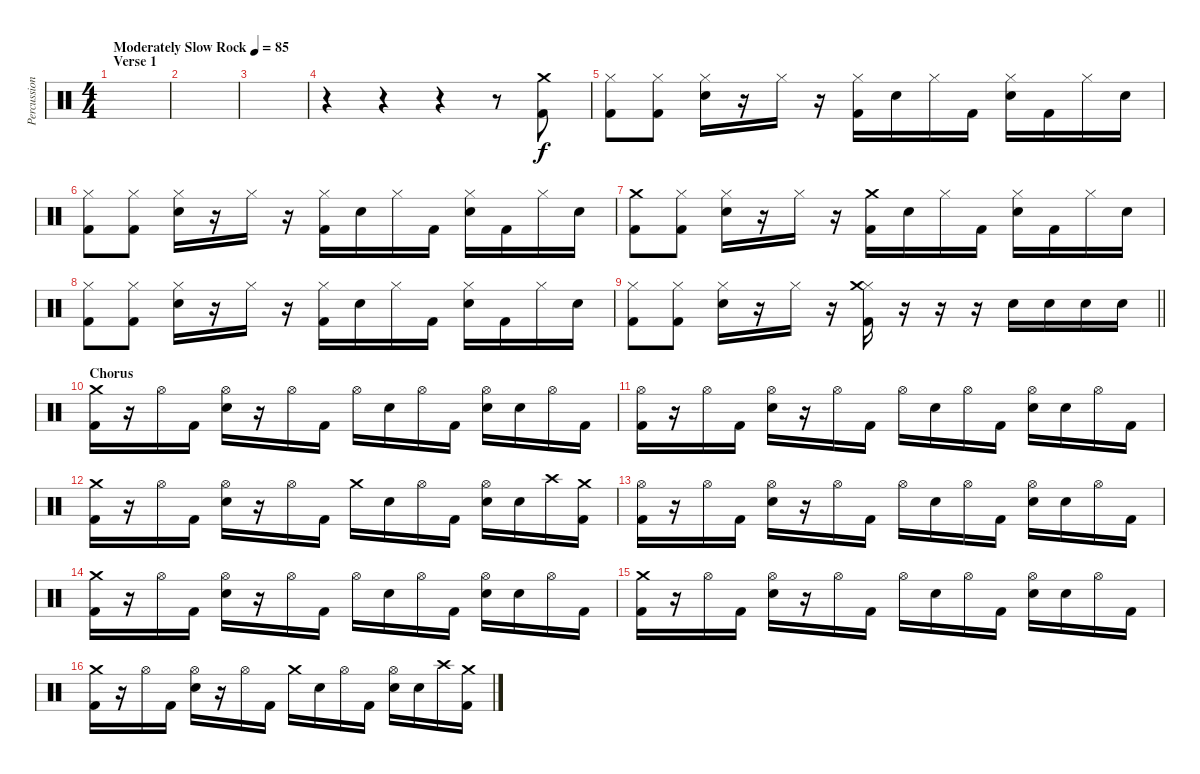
\track ("Percussion" "Percussion") {instrument percussion}
\staff {score}
\articulation defaults
\ts (4 4)
\section ("" "Verse 1")
\tempo (85 "Moderately Slow Rock")
\clef neutral
\ks c
|
|
|
r.4 r.4 r.4 r.8 ("Crash medium (hit)" "Kick (hit) 2").8 |
("Hi-Hat (closed)" "Kick (hit) 2").8 ("Hi-Hat (closed)" "Kick (hit) 2").8 ("Hi-Hat (closed)" "Electric Snare (hit)").16 r.16 "Hi-Hat (closed)".16 r.16 ("Hi-Hat (closed)" "Kick (hit) 2").16 "Electric Snare (hit)".16 "Hi-Hat (closed)".16 "Kick (hit) 2".16 ("Hi-Hat (closed)" "Electric Snare (hit)").16 "Kick (hit) 2".16 "Hi-Hat (closed)".16 "Electric Snare (hit)".16 |
("Hi-Hat (closed)" "Kick (hit) 2").8 ("Hi-Hat (closed)" "Kick (hit) 2").8 ("Hi-Hat (closed)" "Electric Snare (hit)").16 r.16 "Hi-Hat (closed)".16 r.16 ("Hi-Hat (closed)" "Kick (hit) 2").16 "Electric Snare (hit)".16 "Hi-Hat (closed)".16 "Kick (hit) 2".16 ("Hi-Hat (closed)" "Electric Snare (hit)").16 "Kick (hit) 2".16 "Hi-Hat (closed)".16 "Electric Snare (hit)".16 |
("Crash medium (hit)" "Kick (hit) 2").8 ("Hi-Hat (closed)" "Kick (hit) 2").8 ("Hi-Hat (closed)" "Electric Snare (hit)").16 r.16 "Hi-Hat (closed)".16 r.16 ("Crash medium (hit)" "Kick (hit) 2").16 "Electric Snare (hit)".16 "Hi-Hat (closed)".16 "Kick (hit) 2".16 ("Hi-Hat (closed)" "Electric Snare (hit)").16 "Kick (hit) 2".16 "Hi-Hat (closed)".16 "Electric Snare (hit)".16 |
("Hi-Hat (closed)" "Kick (hit) 2").8 ("Hi-Hat (closed)" "Kick (hit) 2").8 ("Hi-Hat (closed)" "Electric Snare (hit)").16 r.16 "Hi-Hat (closed)".16 r.16 ("Hi-Hat (closed)" "Kick (hit) 2").16 "Electric Snare (hit)".16 "Hi-Hat (closed)".16 "Kick (hit) 2".16 ("Hi-Hat (closed)" "Electric Snare (hit)").16 "Kick (hit) 2".16 "Hi-Hat (closed)".16 "Electric Snare (hit)".16 |
\barLineRight lightlight
("Hi-Hat (closed)" "Kick (hit) 2").8 ("Hi-Hat (closed)" "Kick (hit) 2").8 ("Hi-Hat (closed)" "Electric Snare (hit)").16 r.16 "Hi-Hat (closed)".16 r.16 ("Hi-Hat (closed)" "Crash medium (hit)" "Kick (hit) 2").16 r.16 r.16 r.16 "Electric Snare (hit)".16 "Electric Snare (hit)".16 "Electric Snare (hit)".16 "Electric Snare (hit)".16 |
\section ("" "Chorus ")
("Crash medium (hit)" "Kick (hit) 2").16 r.16 "Hi-Hat (open)".16 "Kick (hit) 2".16 ("Hi-Hat (open)" "Electric Snare (hit)").16 r.16 "Hi-Hat (open)".16 "Kick (hit) 2".16 "Hi-Hat (open)".16 "Electric Snare (hit)".16 "Hi-Hat (open)".16 "Kick (hit) 2".16 ("Hi-Hat (open)" "Electric Snare (hit)").16 "Electric Snare (hit)".16 "Hi-Hat (open)".16 "Kick (hit) 2".16 |
("Hi-Hat (open)" "Kick (hit) 2").16 r.16 "Hi-Hat (open)".16 "Kick (hit) 2".16 ("Hi-Hat (open)" "Electric Snare (hit)").16 r.16 "Hi-Hat (open)".16 "Kick (hit) 2".16 "Hi-Hat (open)".16 "Electric Snare (hit)".16 "Hi-Hat (open)".16 "Kick (hit) 2".16 ("Hi-Hat (open)" "Electric Snare (hit)").16 "Electric Snare (hit)".16 "Hi-Hat (open)".16 "Kick (hit) 2".16 |
("Crash medium (hit)" "Kick (hit) 2").16 r.16 "Hi-Hat (open)".16 "Kick (hit) 2".16 ("Hi-Hat (open)" "Electric Snare (hit)").16 r.16 "Hi-Hat (open)".16 "Kick (hit) 2".16 "Crash medium (hit)".16 "Electric Snare (hit)".16 "Hi-Hat (open)".16 "Kick (hit) 2".16 ("Hi-Hat (open)" "Electric Snare (hit)").16 "Electric Snare (hit)".16 "Crash high (hit)".16 ("Crash medium (hit)" "Kick (hit) 2").16 |
("Hi-Hat (open)" "Kick (hit) 2").16 r.16 "Hi-Hat (open)".16 "Kick (hit) 2".16 ("Hi-Hat (open)" "Electric Snare (hit)").16 r.16 "Hi-Hat (open)".16 "Kick (hit) 2".16 "Hi-Hat (open)".16 "Electric Snare (hit)".16 "Hi-Hat (open)".16 "Kick (hit) 2".16 ("Hi-Hat (open)" "Electric Snare (hit)").16 "Electric Snare (hit)".16 "Hi-Hat (open)".16 "Kick (hit) 2".16 |
("Crash medium (hit)" "Kick (hit) 2").16 r.16 "Hi-Hat (open)".16 "Kick (hit) 2".16 ("Hi-Hat (open)" "Electric Snare (hit)").16 r.16 "Hi-Hat (open)".16 "Kick (hit) 2".16 "Hi-Hat (open)".16 "Electric Snare (hit)".16 "Hi-Hat (open)".16 "Kick (hit) 2".16 ("Hi-Hat (open)" "Electric Snare (hit)").16 "Electric Snare (hit)".16 "Hi-Hat (open)".16 "Kick (hit) 2".16 |
("Crash medium (hit)" "Kick (hit) 2").16 r.16 "Hi-Hat (open)".16 "Kick (hit) 2".16 ("Hi-Hat (open)" "Electric Snare (hit)").16 r.16 "Hi-Hat (open)".16 "Kick (hit) 2".16 "Hi-Hat (open)".16 "Electric Snare (hit)".16 "Hi-Hat (open)".16 "Kick (hit) 2".16 ("Hi-Hat (open)" "Electric Snare (hit)").16 "Electric Snare (hit)".16 "Hi-Hat (open)".16 "Kick (hit) 2".16 |
("Crash medium (hit)" "Kick (hit) 2").16 r.16 "Hi-Hat (open)".16 "Kick (hit) 2".16 ("Hi-Hat (open)" "Electric Snare (hit)").16 r.16 "Hi-Hat (open)".16 "Kick (hit) 2".16 "Crash medium (hit)".16 "Electric Snare (hit)".16 "Hi-Hat (open)".16 "Kick (hit) 2".16 ("Hi-Hat (open)" "Electric Snare (hit)").16 "Electric Snare (hit)".16 "Crash high (hit)".16 ("Crash medium (hit)" "Kick (hit) 2").16
